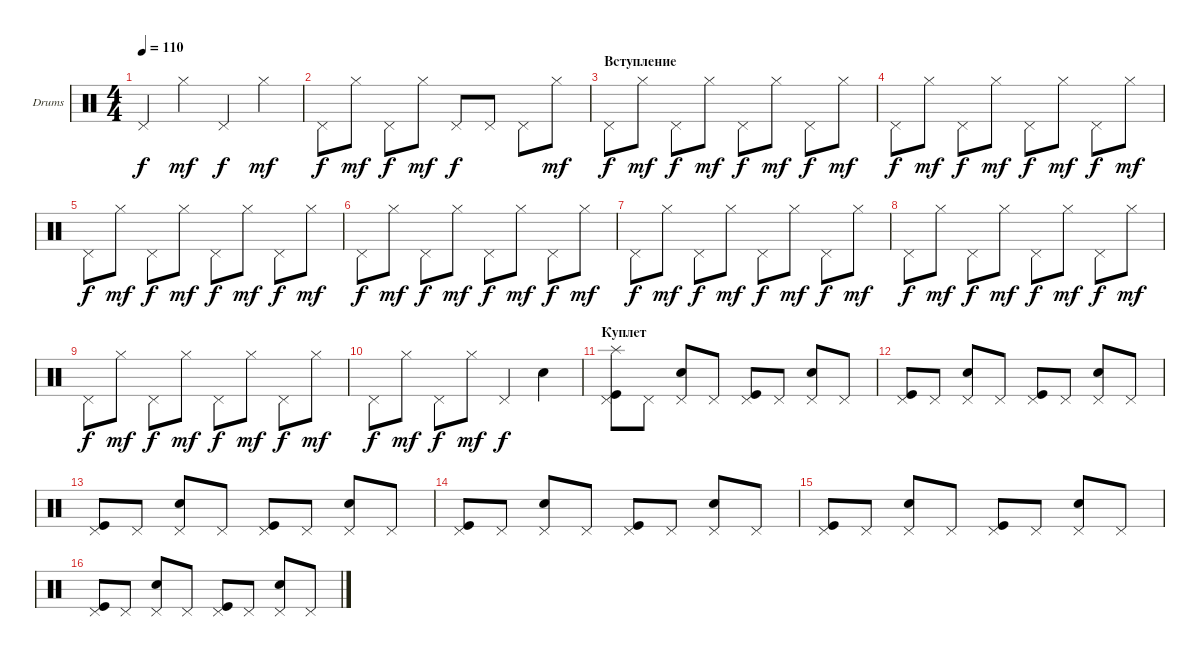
\defaultSystemsLayout 4
\bracketExtendMode groupsimilarinstruments
\firstSystemTrackNameOrientation horizontal
\otherSystemsTrackNameOrientation horizontal
\track ("Drumkit" "Drums") {instrument percussion}
\staff {score}
\articulation defaults
\ts (4 4)
\tempo 110
\clef neutral
\ks c "Pedal Hi-Hat (hit)".4{dy f} "Hi-Hat (closed)".4{dy mf} "Pedal Hi-Hat (hit)".4{dy f} "Hi-Hat (closed)".4{dy mf}
|
"Pedal Hi-Hat (hit)".8{dy f} "Hi-Hat (closed)".8{dy mf} "Pedal Hi-Hat (hit)".8{dy f} "Hi-Hat (closed)".8{dy mf} "Pedal Hi-Hat (hit)".8{dy f} "Pedal Hi-Hat (hit)".8 "Pedal Hi-Hat (hit)".8 "Hi-Hat (closed)".8{dy mf} |
\section ("" "Вступление")
"Pedal Hi-Hat (hit)".8{dy f} "Hi-Hat (closed)".8{dy mf} "Pedal Hi-Hat (hit)".8{dy f} "Hi-Hat (closed)".8{dy mf} "Pedal Hi-Hat (hit)".8{dy f} "Hi-Hat (closed)".8{dy mf} "Pedal Hi-Hat (hit)".8{dy f} "Hi-Hat (closed)".8{dy mf} |
"Pedal Hi-Hat (hit)".8{dy f} "Hi-Hat (closed)".8{dy mf} "Pedal Hi-Hat (hit)".8{dy f} "Hi-Hat (closed)".8{dy mf} "Pedal Hi-Hat (hit)".8{dy f} "Hi-Hat (closed)".8{dy mf} "Pedal Hi-Hat (hit)".8{dy f} "Hi-Hat (closed)".8{dy mf} |
"Pedal Hi-Hat (hit)".8{dy f} "Hi-Hat (closed)".8{dy mf} "Pedal Hi-Hat (hit)".8{dy f} "Hi-Hat (closed)".8{dy mf} "Pedal Hi-Hat (hit)".8{dy f} "Hi-Hat (closed)".8{dy mf} "Pedal Hi-Hat (hit)".8{dy f} "Hi-Hat (closed)".8{dy mf} |
"Pedal Hi-Hat (hit)".8{dy f} "Hi-Hat (closed)".8{dy mf} "Pedal Hi-Hat (hit)".8{dy f} "Hi-Hat (closed)".8{dy mf} "Pedal Hi-Hat (hit)".8{dy f} "Hi-Hat (closed)".8{dy mf} "Pedal Hi-Hat (hit)".8{dy f} "Hi-Hat (closed)".8{dy mf} |
"Pedal Hi-Hat (hit)".8{dy f} "Hi-Hat (closed)".8{dy mf} "Pedal Hi-Hat (hit)".8{dy f} "Hi-Hat (closed)".8{dy mf} "Pedal Hi-Hat (hit)".8{dy f} "Hi-Hat (closed)".8{dy mf} "Pedal Hi-Hat (hit)".8{dy f} "Hi-Hat (closed)".8{dy mf} |
"Pedal Hi-Hat (hit)".8{dy f} "Hi-Hat (closed)".8{dy mf} "Pedal Hi-Hat (hit)".8{dy f} "Hi-Hat (closed)".8{dy mf} "Pedal Hi-Hat (hit)".8{dy f} "Hi-Hat (closed)".8{dy mf} "Pedal Hi-Hat (hit)".8{dy f} "Hi-Hat (closed)".8{dy mf} |
"Pedal Hi-Hat (hit)".8{dy f} "Hi-Hat (closed)".8{dy mf} "Pedal Hi-Hat (hit)".8{dy f} "Hi-Hat (closed)".8{dy mf} "Pedal Hi-Hat (hit)".8{dy f} "Hi-Hat (closed)".8{dy mf} "Pedal Hi-Hat (hit)".8{dy f} "Hi-Hat (closed)".8{dy mf} |
"Pedal Hi-Hat (hit)".8{dy f} "Hi-Hat (closed)".8{dy mf} "Pedal Hi-Hat (hit)".8{dy f} "Hi-Hat (closed)".8{dy mf} "Pedal Hi-Hat (hit)".4{dy f} "Snare (hit) 2".4 |
\section ("" "Куплет")
("Pedal Hi-Hat (hit)" "Kick (hit)" "Splash (hit)").8 "Pedal Hi-Hat (hit)".8 ("Snare (hit) 2" "Pedal Hi-Hat (hit)").8 "Pedal Hi-Hat (hit)".8 ("Pedal Hi-Hat (hit)" "Kick (hit)").8 "Pedal Hi-Hat (hit)".8 ("Snare (hit) 2" "Pedal Hi-Hat (hit)").8 "Pedal Hi-Hat (hit)".8 |
("Pedal Hi-Hat (hit)" "Kick (hit)").8 "Pedal Hi-Hat (hit)".8 ("Snare (hit) 2" "Pedal Hi-Hat (hit)").8 "Pedal Hi-Hat (hit)".8 ("Pedal Hi-Hat (hit)" "Kick (hit)").8 "Pedal Hi-Hat (hit)".8 ("Snare (hit) 2" "Pedal Hi-Hat (hit)").8 "Pedal Hi-Hat (hit)".8 |
("Pedal Hi-Hat (hit)" "Kick (hit)").8 "Pedal Hi-Hat (hit)".8 ("Snare (hit) 2" "Pedal Hi-Hat (hit)").8 "Pedal Hi-Hat (hit)".8 ("Pedal Hi-Hat (hit)" "Kick (hit)").8 "Pedal Hi-Hat (hit)".8 ("Snare (hit) 2" "Pedal Hi-Hat (hit)").8 "Pedal Hi-Hat (hit)".8 |
("Pedal Hi-Hat (hit)" "Kick (hit)").8 "Pedal Hi-Hat (hit)".8 ("Snare (hit) 2" "Pedal Hi-Hat (hit)").8 "Pedal Hi-Hat (hit)".8 ("Pedal Hi-Hat (hit)" "Kick (hit)").8 "Pedal Hi-Hat (hit)".8 ("Snare (hit) 2" "Pedal Hi-Hat (hit)").8 "Pedal Hi-Hat (hit)".8 |
("Pedal Hi-Hat (hit)" "Kick (hit)").8 "Pedal Hi-Hat (hit)".8 ("Snare (hit) 2" "Pedal Hi-Hat (hit)").8 "Pedal Hi-Hat (hit)".8 ("Pedal Hi-Hat (hit)" "Kick (hit)").8 "Pedal Hi-Hat (hit)".8 ("Snare (hit) 2" "Pedal Hi-Hat (hit)").8 "Pedal Hi-Hat (hit)".8 |
("Pedal Hi-Hat (hit)" "Kick (hit)").8 "Pedal Hi-Hat (hit)".8 ("Snare (hit) 2" "Pedal Hi-Hat (hit)").8 "Pedal Hi-Hat (hit)".8 ("Pedal Hi-Hat (hit)" "Kick (hit)").8 "Pedal Hi-Hat (hit)".8 ("Snare (hit) 2" "Pedal Hi-Hat (hit)").8 "Pedal Hi-Hat (hit)".8
